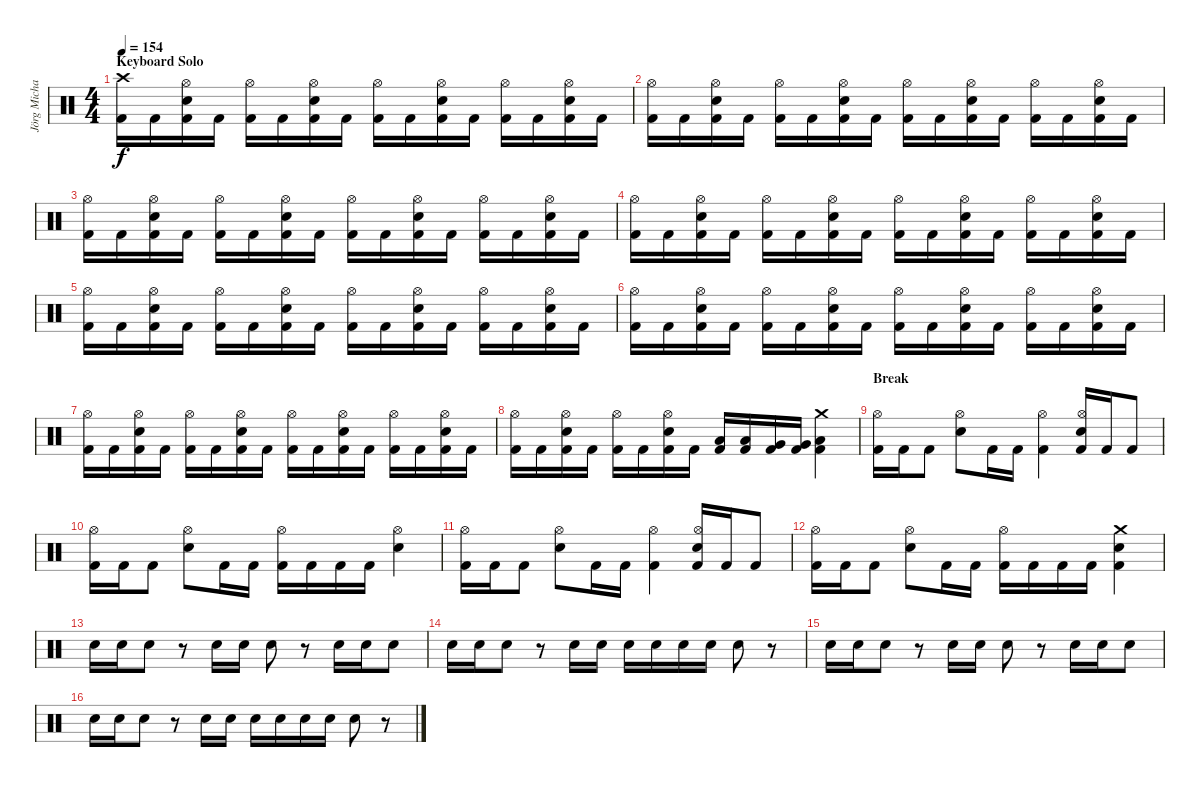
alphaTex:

\track ("Jörg Michael - Drums" "Jörg Micha") {instrument percussion}
\staff {score}
\articulation defaults
\ts (4 4)
\section ("" "Keyboard Solo")
\tempo 154
\clef neutral
\ks c
("Crash high (hit)" "Kick (hit) 2").16{dy f} "Kick (hit) 2".16 ("Hi-Hat (open)" "Electric Snare (hit)" "Kick (hit) 2").16 "Kick (hit) 2".16 ("Hi-Hat (open)" "Kick (hit) 2").16 "Kick (hit) 2".16 ("Hi-Hat (open)" "Electric Snare (hit)" "Kick (hit) 2").16 "Kick (hit) 2".16 ("Hi-Hat (open)" "Kick (hit) 2").16 "Kick (hit) 2".16 ("Hi-Hat (open)" "Electric Snare (hit)" "Kick (hit) 2").16 "Kick (hit) 2".16 ("Hi-Hat (open)" "Kick (hit) 2").16 "Kick (hit) 2".16 ("Hi-Hat (open)" "Electric Snare (hit)" "Kick (hit) 2").16 "Kick (hit) 2".16 |
("Hi-Hat (open)" "Kick (hit) 2").16 "Kick (hit) 2".16 ("Hi-Hat (open)" "Electric Snare (hit)" "Kick (hit) 2").16 "Kick (hit) 2".16 ("Hi-Hat (open)" "Kick (hit) 2").16 "Kick (hit) 2".16 ("Hi-Hat (open)" "Electric Snare (hit)" "Kick (hit) 2").16 "Kick (hit) 2".16 ("Hi-Hat (open)" "Kick (hit) 2").16 "Kick (hit) 2".16 ("Hi-Hat (open)" "Electric Snare (hit)" "Kick (hit) 2").16 "Kick (hit) 2".16 ("Hi-Hat (open)" "Kick (hit) 2").16 "Kick (hit) 2".16 ("Hi-Hat (open)" "Electric Snare (hit)" "Kick (hit) 2").16 "Kick (hit) 2".16 |
("Hi-Hat (open)" "Kick (hit) 2").16 "Kick (hit) 2".16 ("Hi-Hat (open)" "Electric Snare (hit)" "Kick (hit) 2").16 "Kick (hit) 2".16 ("Hi-Hat (open)" "Kick (hit) 2").16 "Kick (hit) 2".16 ("Hi-Hat (open)" "Electric Snare (hit)" "Kick (hit) 2").16 "Kick (hit) 2".16 ("Hi-Hat (open)" "Kick (hit) 2").16 "Kick (hit) 2".16 ("Hi-Hat (open)" "Electric Snare (hit)" "Kick (hit) 2").16 "Kick (hit) 2".16 ("Hi-Hat (open)" "Kick (hit) 2").16 "Kick (hit) 2".16 ("Hi-Hat (open)" "Electric Snare (hit)" "Kick (hit) 2").16 "Kick (hit) 2".16 |
("Hi-Hat (open)" "Kick (hit) 2").16 "Kick (hit) 2".16 ("Hi-Hat (open)" "Electric Snare (hit)" "Kick (hit) 2").16 "Kick (hit) 2".16 ("Hi-Hat (open)" "Kick (hit) 2").16 "Kick (hit) 2".16 ("Hi-Hat (open)" "Electric Snare (hit)" "Kick (hit) 2").16 "Kick (hit) 2".16 ("Hi-Hat (open)" "Kick (hit) 2").16 "Kick (hit) 2".16 ("Hi-Hat (open)" "Electric Snare (hit)" "Kick (hit) 2").16 "Kick (hit) 2".16 ("Hi-Hat (open)" "Kick (hit) 2").16 "Kick (hit) 2".16 ("Hi-Hat (open)" "Electric Snare (hit)" "Kick (hit) 2").16 "Kick (hit) 2".16 |
("Hi-Hat (open)" "Kick (hit) 2").16 "Kick (hit) 2".16 ("Hi-Hat (open)" "Electric Snare (hit)" "Kick (hit) 2").16 "Kick (hit) 2".16 ("Hi-Hat (open)" "Kick (hit) 2").16 "Kick (hit) 2".16 ("Hi-Hat (open)" "Electric Snare (hit)" "Kick (hit) 2").16 "Kick (hit) 2".16 ("Hi-Hat (open)" "Kick (hit) 2").16 "Kick (hit) 2".16 ("Hi-Hat (open)" "Electric Snare (hit)" "Kick (hit) 2").16 "Kick (hit) 2".16 ("Hi-Hat (open)" "Kick (hit) 2").16 "Kick (hit) 2".16 ("Hi-Hat (open)" "Electric Snare (hit)" "Kick (hit) 2").16 "Kick (hit) 2".16 |
("Hi-Hat (open)" "Kick (hit) 2").16 "Kick (hit) 2".16 ("Hi-Hat (open)" "Electric Snare (hit)" "Kick (hit) 2").16 "Kick (hit) 2".16 ("Hi-Hat (open)" "Kick (hit) 2").16 "Kick (hit) 2".16 ("Hi-Hat (open)" "Electric Snare (hit)" "Kick (hit) 2").16 "Kick (hit) 2".16 ("Hi-Hat (open)" "Kick (hit) 2").16 "Kick (hit) 2".16 ("Hi-Hat (open)" "Electric Snare (hit)" "Kick (hit) 2").16 "Kick (hit) 2".16 ("Hi-Hat (open)" "Kick (hit) 2").16 "Kick (hit) 2".16 ("Hi-Hat (open)" "Electric Snare (hit)" "Kick (hit) 2").16 "Kick (hit) 2".16 |
("Hi-Hat (open)" "Kick (hit) 2").16 "Kick (hit) 2".16 ("Hi-Hat (open)" "Electric Snare (hit)" "Kick (hit) 2").16 "Kick (hit) 2".16 ("Hi-Hat (open)" "Kick (hit) 2").16 "Kick (hit) 2".16 ("Hi-Hat (open)" "Electric Snare (hit)" "Kick (hit) 2").16 "Kick (hit) 2".16 ("Hi-Hat (open)" "Kick (hit) 2").16 "Kick (hit) 2".16 ("Hi-Hat (open)" "Electric Snare (hit)" "Kick (hit) 2").16 "Kick (hit) 2".16 ("Hi-Hat (open)" "Kick (hit) 2").16 "Kick (hit) 2".16 ("Hi-Hat (open)" "Electric Snare (hit)" "Kick (hit) 2").16 "Kick (hit) 2".16 |
("Hi-Hat (open)" "Kick (hit) 2").16 "Kick (hit) 2".16 ("Hi-Hat (open)" "Electric Snare (hit)" "Kick (hit) 2").16 "Kick (hit) 2".16 ("Hi-Hat (open)" "Kick (hit) 2").16 "Kick (hit) 2".16 ("Hi-Hat (open)" "Electric Snare (hit)" "Kick (hit) 2").16 "Kick (hit) 2".16 ("Low Tom (hit)" "Kick (hit) 2").16 ("Low Tom (hit)" "Kick (hit) 2").16 ("Very Low Tom (hit)" "Kick (hit) 2").16 ("Very Low Tom (hit)" "Kick (hit) 2").16 ("Crash medium (hit)" "Low Tom (hit)" "Kick (hit) 2").4 |
\section ("" "Break")
("Hi-Hat (open)" "Kick (hit) 2").16 "Kick (hit) 2".16 "Kick (hit) 2".8 ("Hi-Hat (open)" "Electric Snare (hit)").8 "Kick (hit) 2".16 "Kick (hit) 2".16 ("Hi-Hat (open)" "Kick (hit) 2").4 ("Hi-Hat (open)" "Electric Snare (hit)" "Kick (hit) 2").16 "Kick (hit) 2".16 "Kick (hit) 2".8 |
("Hi-Hat (open)" "Kick (hit) 2").16 "Kick (hit) 2".16 "Kick (hit) 2".8 ("Hi-Hat (open)" "Electric Snare (hit)").8 "Kick (hit) 2".16 "Kick (hit) 2".16 ("Hi-Hat (open)" "Kick (hit) 2").16 "Kick (hit) 2".16 "Kick (hit) 2".16 "Kick (hit) 2".16 ("Hi-Hat (open)" "Electric Snare (hit)").4 |
("Hi-Hat (open)" "Kick (hit) 2").16 "Kick (hit) 2".16 "Kick (hit) 2".8 ("Hi-Hat (open)" "Electric Snare (hit)").8 "Kick (hit) 2".16 "Kick (hit) 2".16 ("Hi-Hat (open)" "Kick (hit) 2").4 ("Hi-Hat (open)" "Electric Snare (hit)" "Kick (hit) 2").16 "Kick (hit) 2".16 "Kick (hit) 2".8 |
("Hi-Hat (open)" "Kick (hit) 2").16 "Kick (hit) 2".16 "Kick (hit) 2".8 ("Hi-Hat (open)" "Electric Snare (hit)").8 "Kick (hit) 2".16 "Kick (hit) 2".16 ("Hi-Hat (open)" "Kick (hit) 2").16 "Kick (hit) 2".16 "Kick (hit) 2".16 "Kick (hit) 2".16 ("Crash medium (hit)" "Electric Snare (hit)" "Kick (hit) 2").4 |
"Electric Snare (hit)".16 "Electric Snare (hit)".16 "Electric Snare (hit)".8 r.8 "Electric Snare (hit)".16 "Electric Snare (hit)".16 "Electric Snare (hit)".8 r.8 "Electric Snare (hit)".16 "Electric Snare (hit)".16 "Electric Snare (hit)".8 |
"Electric Snare (hit)".16 "Electric Snare (hit)".16 "Electric Snare (hit)".8 r.8 "Electric Snare (hit)".16 "Electric Snare (hit)".16 "Electric Snare (hit)".16 "Electric Snare (hit)".16 "Electric Snare (hit)".16 "Electric Snare (hit)".16 "Electric Snare (hit)".8 r.8 |
"Electric Snare (hit)".16 "Electric Snare (hit)".16 "Electric Snare (hit)".8 r.8 "Electric Snare (hit)".16 "Electric Snare (hit)".16 "Electric Snare (hit)".8 r.8 "Electric Snare (hit)".16 "Electric Snare (hit)".16 "Electric Snare (hit)".8 |
"Electric Snare (hit)".16 "Electric Snare (hit)".16 "Electric Snare (hit)".8 r.8 "Electric Snare (hit)".16 "Electric Snare (hit)".16 "Electric Snare (hit)".16 "Electric Snare (hit)".16 "Electric Snare (hit)".16 "Electric Snare (hit)".16 "Electric Snare (hit)".8 r.8
